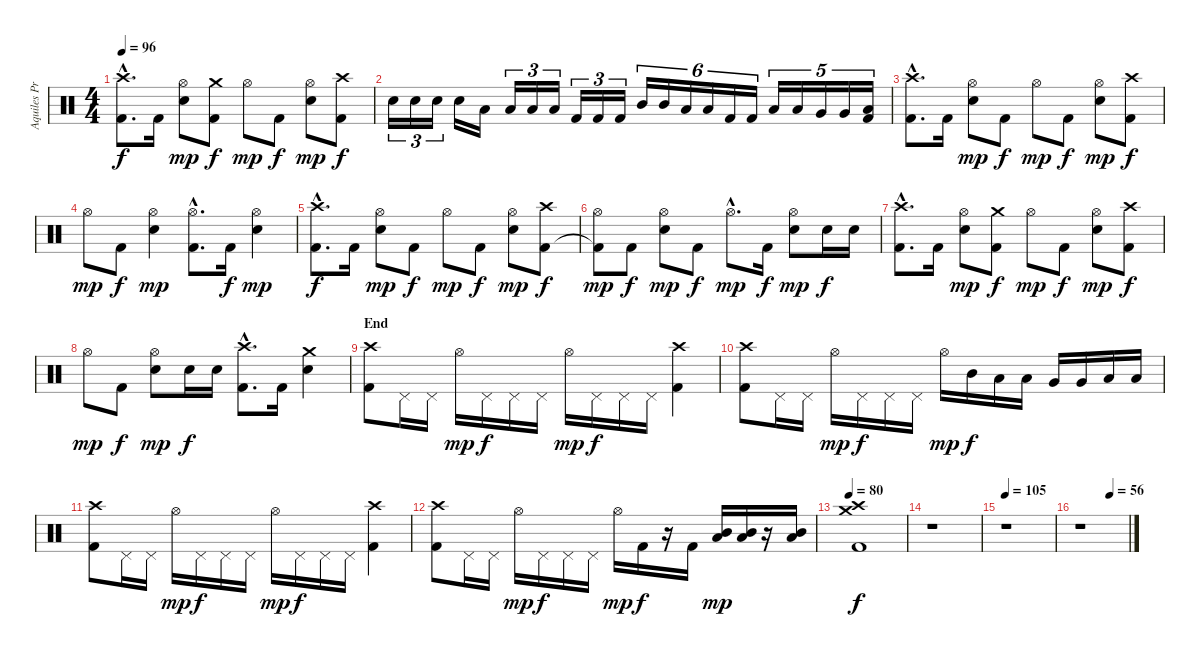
\track ("Aquiles Priester" "Aquiles Pr") {instrument percussion}
\staff {score}
\articulation defaults
\ts (4 4)
\tempo 96
\clef neutral
\ks c
("Crash high (hit)"{hac} "Kick (hit) 2"{hac}).8{d dy f} "Kick (hit) 2".16 ("Hi-Hat (open)" "Snare (hit) 2").8{dy mp} ("Crash medium (hit)" "Kick (hit) 2").8{dy f} "Hi-Hat (open)".8{dy mp} "Kick (hit) 2".8{dy f} ("Hi-Hat (open)" "Snare (hit) 2").8{dy mp} ("Crash high (hit)" "Kick (hit) 2").8{dy f} |
"Snare (hit) 2".16{tu (3 2)} "Snare (hit) 2".16{tu (3 2)} "Snare (hit) 2".16{tu (3 2)} "Snare (hit) 2".16 "Low Tom (hit)".16 "Low Tom (hit)".16{tu (3 2)} "Low Floor Tom (hit)".16{tu (3 2)} "Low Floor Tom (hit)".16{tu (3 2)} "Kick (hit) 2".16{tu (3 2)} "Kick (hit) 2".16{tu (3 2)} "Kick (hit) 2".16{tu (3 2)} "Mid Tom (hit)".16{tu (6 4)} "Mid Tom (hit)".16{tu (6 4)} "Low Tom (hit)".16{tu (6 4)} "Low Tom (hit)".16{tu (6 4)} "Kick (hit) 2".16{tu (6 4)} "Kick (hit) 2".16{tu (6 4)} "Low Tom (hit)".16{tu (5 4)} "Low Tom (hit)".16{tu (5 4)} "Very Low Tom (hit)".16{tu (5 4)} "Very Low Tom (hit)".16{tu (5 4)} ("Low Floor Tom (hit)" "Kick (hit) 2").16{tu (5 4)} |
("Crash high (hit)"{hac} "Kick (hit) 2"{hac}).8{d} "Kick (hit) 2".16 ("Hi-Hat (open)" "Snare (hit) 2").8{dy mp} "Kick (hit) 2".8{dy f} "Hi-Hat (open)".8{dy mp} "Kick (hit) 2".8{dy f} ("Hi-Hat (open)" "Snare (hit) 2").8{dy mp} ("Crash high (hit)" "Kick (hit) 2").8{dy f} |
"Hi-Hat (open)".8{dy mp} "Kick (hit) 2".8{dy f} ("Hi-Hat (open)" "Snare (hit) 2").4{dy mp} ("Hi-Hat (open)"{hac} "Kick (hit) 2"{hac}).8{d} "Kick (hit) 2".16{dy f} ("Hi-Hat (open)" "Snare (hit) 2").4{dy mp} |
("Crash high (hit)"{hac} "Kick (hit) 2"{hac}).8{d dy f} "Kick (hit) 2".16 ("Hi-Hat (open)" "Snare (hit) 2").8{dy mp} "Kick (hit) 2".8{dy f} "Hi-Hat (open)".8{dy mp} "Kick (hit) 2".8{dy f} ("Hi-Hat (open)" "Snare (hit) 2").8{dy mp} ("Crash high (hit)" "Kick (hit) 2").8{dy f} |
("Hi-Hat (open)" "Kick (hit) 2"{t}).8{dy mp} "Kick (hit) 2".8{dy f} ("Hi-Hat (open)" "Snare (hit) 2").8{dy mp} "Kick (hit) 2".8{dy f} "Hi-Hat (open)"{hac}.8{d dy mp} "Kick (hit) 2".16{dy f} ("Hi-Hat (open)" "Snare (hit) 2").8{dy mp} "Snare (hit) 2".16{dy f} "Snare (hit) 2".16 |
("Crash high (hit)"{hac} "Kick (hit) 2"{hac}).8{d} "Kick (hit) 2".16 ("Hi-Hat (open)" "Snare (hit) 2").8{dy mp} ("Crash medium (hit)" "Kick (hit) 2").8{dy f} "Hi-Hat (open)".8{dy mp} "Kick (hit) 2".8{dy f} ("Hi-Hat (open)" "Snare (hit) 2").8{dy mp} ("Crash high (hit)" "Kick (hit) 2").8{dy f} |
"Hi-Hat (open)".8{dy mp} "Kick (hit) 2".8{dy f} ("Hi-Hat (open)" "Snare (hit) 2").8{dy mp} "Snare (hit) 2".16{dy f} "Snare (hit) 2".16 ("Crash high (hit)"{hac} "Kick (hit) 2"{hac}).8{d} "Kick (hit) 2".16 ("Crash medium (hit)" "Snare (hit) 2").4 |
\section ("" "End")
("Crash high (hit)" "Kick (hit) 2").8 "Pedal Hi-Hat (hit)".16 "Pedal Hi-Hat (hit)".16 "Hi-Hat (open)".16{dy mp} "Pedal Hi-Hat (hit)".16{dy f} "Pedal Hi-Hat (hit)".16 "Pedal Hi-Hat (hit)".16 "Hi-Hat (open)".16{dy mp} "Pedal Hi-Hat (hit)".16{dy f} "Pedal Hi-Hat (hit)".16 "Pedal Hi-Hat (hit)".16 ("Crash high (hit)" "Kick (hit) 2").4 |
("Crash high (hit)" "Kick (hit) 2").8 "Pedal Hi-Hat (hit)".16 "Pedal Hi-Hat (hit)".16 "Hi-Hat (open)".16{dy mp} "Pedal Hi-Hat (hit)".16{dy f} "Pedal Hi-Hat (hit)".16 "Pedal Hi-Hat (hit)".16 "Hi-Hat (open)".16{dy mp} "Mid Tom (hit)".16{dy f} "Low Tom (hit)".16 "Low Tom (hit)".16 "Very Low Tom (hit)".16 "Very Low Tom (hit)".16 "Low Floor Tom (hit)".16 "Low Floor Tom (hit)".16 |
("Crash high (hit)" "Kick (hit) 2").8 "Pedal Hi-Hat (hit)".16 "Pedal Hi-Hat (hit)".16 "Hi-Hat (open)".16{dy mp} "Pedal Hi-Hat (hit)".16{dy f} "Pedal Hi-Hat (hit)".16 "Pedal Hi-Hat (hit)".16 "Hi-Hat (open)".16{dy mp} "Pedal Hi-Hat (hit)".16{dy f} "Pedal Hi-Hat (hit)".16 "Pedal Hi-Hat (hit)".16 ("Crash high (hit)" "Kick (hit) 2").4 |
("Crash high (hit)" "Kick (hit) 2").8 "Pedal Hi-Hat (hit)".16 "Pedal Hi-Hat (hit)".16 "Hi-Hat (open)".16{dy mp} "Pedal Hi-Hat (hit)".16{dy f} "Pedal Hi-Hat (hit)".16 "Pedal Hi-Hat (hit)".16 "Hi-Hat (open)".16{dy mp} "Kick (hit) 2".16{dy f} r.16 "Kick (hit) 2".16 ("Mid Tom (hit)" "Low Tom (hit)").16{dy mp} ("Mid Tom (hit)" "Low Tom (hit)").16 r.16 ("Mid Tom (hit)" "Low Tom (hit)").16 |
\tempo 80
("Crash high (hit)" "Crash medium (hit)" "Kick (hit) 2").1{dy f} |
r.1 |
\tempo 105
r.1 |
\tempo (56 0.625)
r.1
